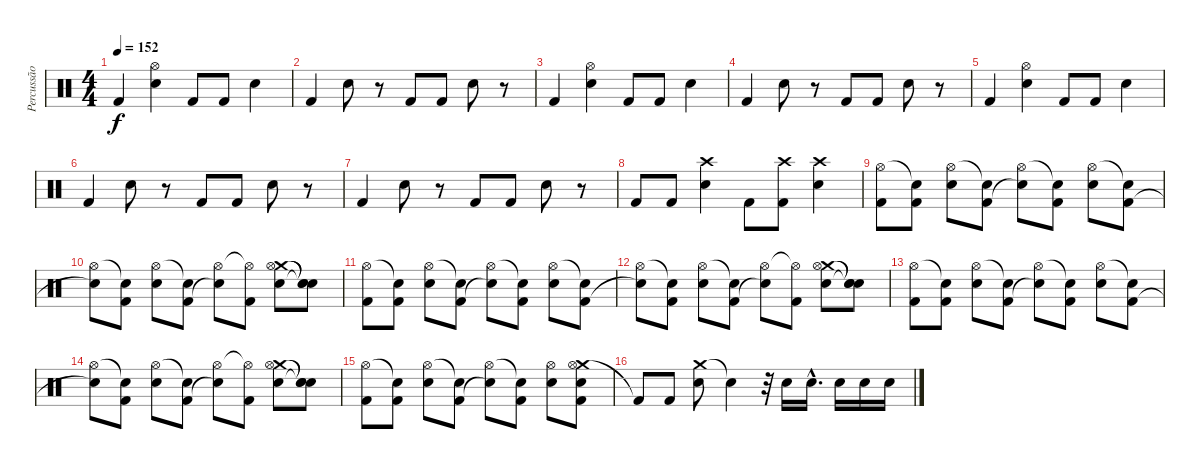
\track ("Percussão" "Percussão") {instrument percussion}
\staff {score}
\articulation defaults
\ts (4 4)
\tempo 152
\clef neutral
\ks c "Kick (hit) 2".4{dy f}
("Hi-Hat (open)" "Snare (hit) 2").4 "Kick (hit) 2".8 "Kick (hit) 2".8 "Snare (hit) 2".4 |
"Kick (hit) 2".4 "Snare (hit) 2".8 r.8 "Kick (hit) 2".8 "Kick (hit) 2".8 "Snare (hit) 2".8 r.8 |
"Kick (hit) 2".4 ("Hi-Hat (open)" "Snare (hit) 2").4 "Kick (hit) 2".8 "Kick (hit) 2".8 "Snare (hit) 2".4 |
"Kick (hit) 2".4 "Snare (hit) 2".8 r.8 "Kick (hit) 2".8 "Kick (hit) 2".8 "Snare (hit) 2".8 r.8 |
"Kick (hit) 2".4 ("Hi-Hat (open)" "Snare (hit) 2").4 "Kick (hit) 2".8 "Kick (hit) 2".8 "Snare (hit) 2".4 |
"Kick (hit) 2".4 "Snare (hit) 2".8 r.8 "Kick (hit) 2".8 "Kick (hit) 2".8 "Snare (hit) 2".8 r.8 |
"Kick (hit) 2".4 "Snare (hit) 2".8 r.8 "Kick (hit) 2".8 "Kick (hit) 2".8 "Snare (hit) 2".8 r.8 |
"Kick (hit) 2".8 "Kick (hit) 2".8 ("Crash high (hit)" "Snare (hit) 2").4 "Kick (hit) 2".8 ("Crash high (hit)" "Kick (hit) 2").8 ("Crash high (hit)" "Snare (hit) 2").4 |
("Hi-Hat (open)" "Kick (hit) 2").8 ("Snare (hit)"{t} "Kick (hit) 2").8 ("Hi-Hat (open)" "Snare (hit) 2").8 ("Snare (hit)"{t} "Kick (hit) 2").8 ("Hi-Hat (open)" "Snare (hit)"{t}).8 ("Snare (hit)"{t} "Kick (hit) 2").8 ("Hi-Hat (open)" "Snare (hit) 2").8 ("Snare (hit)"{t} "Kick (hit) 2").8 |
("Hi-Hat (open)" "Snare (hit)"{t}).8 ("Snare (hit)"{t} "Kick (hit) 2").8 ("Hi-Hat (open)" "Snare (hit) 2").8 ("Snare (hit)"{t} "Kick (hit) 2").8 ("Hi-Hat (open)" "Snare (hit)"{t}).8 ("Hi-Hat (open)"{t} "Kick (hit) 2").8 ("Crash medium (hit)" "Snare (hit) 2" "Hi-Hat (open)").8 ("Snare (hit)"{t} "Snare (hit)"{t} "Snare (hit)"{t}).8 |
("Hi-Hat (open)" "Kick (hit) 2").8 ("Snare (hit)"{t} "Kick (hit) 2").8 ("Hi-Hat (open)" "Snare (hit) 2").8 ("Snare (hit)"{t} "Kick (hit) 2").8 ("Hi-Hat (open)" "Snare (hit)"{t}).8 ("Snare (hit)"{t} "Kick (hit) 2").8 ("Hi-Hat (open)" "Snare (hit) 2").8 ("Snare (hit)"{t} "Kick (hit) 2").8 |
("Hi-Hat (open)" "Snare (hit)"{t}).8 ("Snare (hit)"{t} "Kick (hit) 2").8 ("Hi-Hat (open)" "Snare (hit) 2").8 ("Snare (hit)"{t} "Kick (hit) 2").8 ("Hi-Hat (open)" "Snare (hit)"{t}).8 ("Hi-Hat (open)"{t} "Kick (hit) 2").8 ("Crash medium (hit)" "Snare (hit) 2" "Hi-Hat (open)").8 ("Snare (hit)"{t} "Snare (hit)"{t} "Snare (hit)"{t}).8 |
("Hi-Hat (open)" "Kick (hit) 2").8 ("Snare (hit)"{t} "Kick (hit) 2").8 ("Hi-Hat (open)" "Snare (hit) 2").8 ("Snare (hit)"{t} "Kick (hit) 2").8 ("Hi-Hat (open)" "Snare (hit)"{t}).8 ("Snare (hit)"{t} "Kick (hit) 2").8 ("Hi-Hat (open)" "Snare (hit) 2").8 ("Snare (hit)"{t} "Kick (hit) 2").8 |
("Hi-Hat (open)" "Snare (hit)"{t}).8 ("Snare (hit)"{t} "Kick (hit) 2").8 ("Hi-Hat (open)" "Snare (hit) 2").8 ("Snare (hit)"{t} "Kick (hit) 2").8 ("Hi-Hat (open)" "Snare (hit)"{t}).8 ("Hi-Hat (open)"{t} "Kick (hit) 2").8 ("Crash medium (hit)" "Snare (hit) 2" "Hi-Hat (open)").8 ("Snare (hit)"{t} "Snare (hit)"{t} "Snare (hit)"{t}).8 |
("Hi-Hat (open)" "Kick (hit) 2").8 ("Snare (hit)"{t} "Kick (hit) 2").8 ("Hi-Hat (open)" "Snare (hit) 2").8 ("Snare (hit)"{t} "Kick (hit) 2").8 ("Hi-Hat (open)" "Snare (hit)"{t}).8 ("Snare (hit)"{t} "Kick (hit) 2").8 ("Hi-Hat (open)" "Snare (hit) 2").8 ("Crash medium (hit)" "Hi-Hat (open)" "Snare (hit) 2" "Kick (hit) 2").8 |
"Kick (hit) 2"{t}.8 "Kick (hit) 2".8 ("Crash medium (hit)" "Snare (hit) 2").8 "Snare (hit)"{t}.4 r.32 "Snare (hit) 2".16 "Snare (hit) 2"{hac}.16{d} "Snare (hit) 2".16 "Snare (hit) 2".16 "Snare (hit) 2".16
